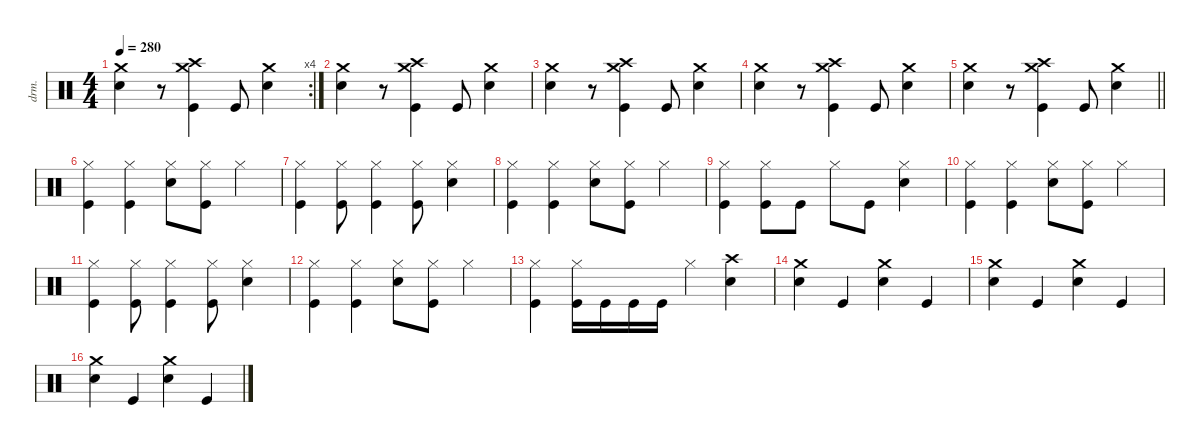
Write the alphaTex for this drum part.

\defaultSystemsLayout 4
\hideDynamics
\bracketExtendMode nobrackets
\otherSystemsTrackNameOrientation horizontal
\track ("Nick Menza" "drm.") {instrument percussion}
\staff {score}
\articulation defaults
\rc 4
\ts (4 4)
\tempo 280
\clef neutral
\ks c
("Crash medium (hit)" "Snare (hit) 2").4{dy f beam Down} r.8{beam Down} ("Crash high (hit)" "Crash medium (hit)" "Kick (hit)").4{dy mp beam Down} "Kick (hit)".8{dy f beam Up} ("Crash medium (hit)" "Snare (hit) 2").4{beam Down} |
("Crash medium (hit)" "Snare (hit) 2").4{beam Down} r.8{beam Down} ("Crash high (hit)" "Crash medium (hit)" "Kick (hit)").4{dy mp beam Down} "Kick (hit)".8{dy f beam Up} ("Crash medium (hit)" "Snare (hit) 2").4{beam Down} |
("Crash medium (hit)" "Snare (hit) 2").4{beam Down} r.8{beam Down} ("Crash high (hit)" "Crash medium (hit)" "Kick (hit)").4{dy mp beam Down} "Kick (hit)".8{dy f beam Up} ("Crash medium (hit)" "Snare (hit) 2").4{beam Down} |
("Crash medium (hit)" "Snare (hit) 2").4{beam Down} r.8{beam Down} ("Crash high (hit)" "Crash medium (hit)" "Kick (hit)").4{dy mp beam Down} "Kick (hit)".8{dy f beam Up} ("Crash medium (hit)" "Snare (hit) 2").4{beam Down} |
\barLineRight lightlight
("Crash medium (hit)" "Snare (hit) 2").4{beam Down} r.8{beam Down} ("Crash high (hit)" "Crash medium (hit)" "Kick (hit)").4{dy mp beam Down} "Kick (hit)".8{dy f beam Up} ("Crash medium (hit)" "Snare (hit) 2").4{beam Down} |
("Hi-Hat (closed)" "Kick (hit)").4{beam Down} ("Hi-Hat (closed)" "Kick (hit)").4{beam Down} ("Hi-Hat (closed)" "Snare (hit) 2").8{beam Down} ("Hi-Hat (closed)" "Kick (hit)").8{beam Down} "Hi-Hat (closed)".4{beam Down} |
("Hi-Hat (closed)" "Kick (hit)").4{beam Down} ("Hi-Hat (closed)" "Kick (hit)").8{beam Down} ("Hi-Hat (closed)" "Kick (hit)").4{beam Down} ("Hi-Hat (closed)" "Kick (hit)").8{beam Down} ("Hi-Hat (closed)" "Snare (hit) 2").4{beam Down} |
("Hi-Hat (closed)" "Kick (hit)").4{beam Down} ("Hi-Hat (closed)" "Kick (hit)").4{beam Down} ("Hi-Hat (closed)" "Snare (hit) 2").8{beam Down} ("Hi-Hat (closed)" "Kick (hit)").8{beam Down} "Hi-Hat (closed)".4{beam Down} |
("Hi-Hat (closed)" "Kick (hit)").4{beam Down} ("Hi-Hat (closed)" "Kick (hit)").8{beam Down} "Kick (hit)".8{beam Down} "Hi-Hat (closed)".8{beam Down} "Kick (hit)".8{beam Down} ("Hi-Hat (closed)" "Snare (hit) 2").4{beam Down} |
("Hi-Hat (closed)" "Kick (hit)").4{beam Down} ("Hi-Hat (closed)" "Kick (hit)").4{beam Down} ("Hi-Hat (closed)" "Snare (hit) 2").8{beam Down} ("Hi-Hat (closed)" "Kick (hit)").8{beam Down} "Hi-Hat (closed)".4{beam Down} |
("Hi-Hat (closed)" "Kick (hit)").4{beam Down} ("Hi-Hat (closed)" "Kick (hit)").8{beam Down} ("Hi-Hat (closed)" "Kick (hit)").4{beam Down} ("Hi-Hat (closed)" "Kick (hit)").8{beam Down} ("Hi-Hat (closed)" "Snare (hit) 2").4{beam Down} |
("Hi-Hat (closed)" "Kick (hit)").4{beam Down} ("Hi-Hat (closed)" "Kick (hit)").4{beam Down} ("Hi-Hat (closed)" "Snare (hit) 2").8{beam Down} ("Hi-Hat (closed)" "Kick (hit)").8{beam Down} "Hi-Hat (closed)".4{beam Down} |
("Hi-Hat (closed)" "Kick (hit)").4{beam Down} ("Hi-Hat (closed)" "Kick (hit)").16{beam Down} "Kick (hit)".16{beam Down} "Kick (hit)".16{beam Down} "Kick (hit)".16{beam Down} "Hi-Hat (closed)".4{beam Down} ("Crash high (hit)" "Snare (hit) 2").4{beam Down} |
("Crash medium (hit)" "Snare (hit) 2").4{beam Down} "Kick (hit)".4{beam Up} ("Crash medium (hit)" "Snare (hit) 2").4{beam Down} "Kick (hit)".4{beam Up} |
("Crash medium (hit)" "Snare (hit) 2").4{beam Down} "Kick (hit)".4{beam Up} ("Crash medium (hit)" "Snare (hit) 2").4{beam Down} "Kick (hit)".4{beam Up} |
("Crash medium (hit)" "Snare (hit) 2").4{beam Down} "Kick (hit)".4{beam Up} ("Crash medium (hit)" "Snare (hit) 2").4{beam Down} "Kick (hit)".4{beam Up}
